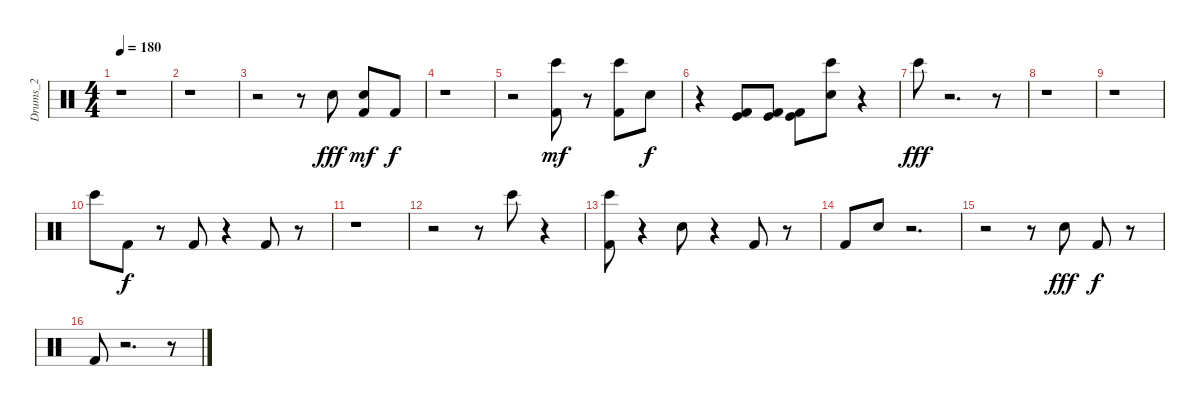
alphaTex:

\track ("Drums_2" "Drums_2") {instrument percussion}
\staff {score}
\articulation defaults
\ts (4 4)
\tempo 180
\clef neutral
\ks c
r.1{dy mp} |
r.1 |
r.2 r.8 "Snare (hit) 2".8{dy fff} ("Kick (hit) 2" "Snare (hit) 2").8{dy mf} "Kick (hit) 2".8{dy f} |
r.1 |
r.2 ("Bongo High (hit)" "Kick (hit) 2").8{dy mf} r.8 ("Bongo High (hit)" "Kick (hit) 2").8 "Snare (hit) 2".8{dy f} |
r.4 ("Kick (hit)" "Kick (hit) 2").8 ("Kick (hit)" "Kick (hit) 2").8 ("Kick (hit)" "Kick (hit) 2").8 ("Bongo High (hit)" "Snare (hit) 2").8 r.4 |
"Bongo High (hit)".8{dy fff} r.2{d} r.8 |
r.1 |
r.1 |
"Bongo High (hit)".8 "Kick (hit) 2".8{dy f} r.8 "Kick (hit) 2".8 r.4 "Kick (hit) 2".8 r.8 |
r.1 |
r.2 r.8 "Bongo High (hit)".8 r.4 |
("Bongo High (hit)" "Kick (hit) 2").8 r.4 "Snare (hit) 2".8 r.4 "Kick (hit) 2".8 r.8 |
"Kick (hit) 2".8 "Snare (hit) 2".8 r.2{d} |
r.2 r.8 "Snare (hit) 2".8{dy fff} "Kick (hit) 2".8{dy f} r.8 |
"Kick (hit) 2".8 r.2{d} r.8
